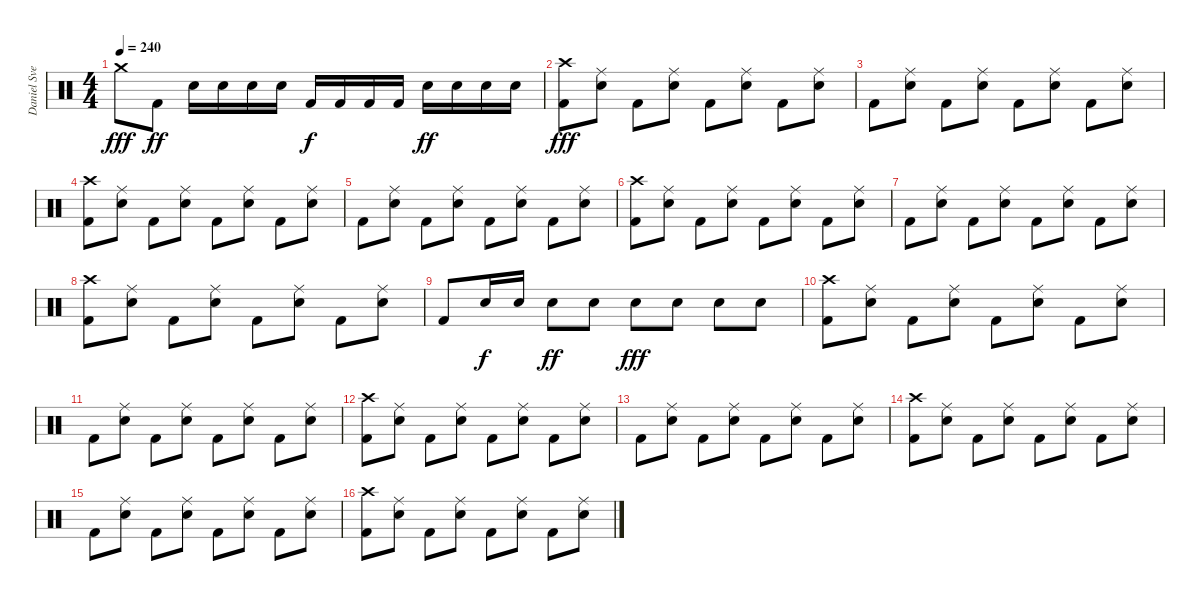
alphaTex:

\track ("Daniel Svensson" "Daniel Sve") {instrument percussion}
\staff {score}
\articulation defaults
\ts (4 4)
\tempo 240
\clef neutral
\ks c "Crash medium (hit)".8{dy fff} "Kick (hit) 2".8{dy ff} "Electric Snare (hit)".16 "Electric Snare (hit)".16 "Electric Snare (hit)".16 "Electric Snare (hit)".16 "Kick (hit) 2".16{dy f} "Kick (hit) 2".16 "Kick (hit) 2".16 "Kick (hit) 2".16 "Electric Snare (hit)".16{dy ff} "Electric Snare (hit)".16 "Electric Snare (hit)".16 "Electric Snare (hit)".16
|
("Crash high (hit)" "Kick (hit) 2").8{dy fff} ("Ride (middle)" "Electric Snare (hit)").8 "Kick (hit) 2".8 ("Ride (middle)" "Electric Snare (hit)").8 "Kick (hit) 2".8 ("Ride (middle)" "Electric Snare (hit)").8 "Kick (hit) 2".8 ("Ride (middle)" "Electric Snare (hit)").8 |
"Kick (hit) 2".8 ("Ride (middle)" "Electric Snare (hit)").8 "Kick (hit) 2".8 ("Ride (middle)" "Electric Snare (hit)").8 "Kick (hit) 2".8 ("Ride (middle)" "Electric Snare (hit)").8 "Kick (hit) 2".8 ("Ride (middle)" "Electric Snare (hit)").8 |
("Crash high (hit)" "Kick (hit) 2").8 ("Ride (middle)" "Electric Snare (hit)").8 "Kick (hit) 2".8 ("Ride (middle)" "Electric Snare (hit)").8 "Kick (hit) 2".8 ("Ride (middle)" "Electric Snare (hit)").8 "Kick (hit) 2".8 ("Ride (middle)" "Electric Snare (hit)").8 |
"Kick (hit) 2".8 ("Ride (middle)" "Electric Snare (hit)").8 "Kick (hit) 2".8 ("Ride (middle)" "Electric Snare (hit)").8 "Kick (hit) 2".8 ("Ride (middle)" "Electric Snare (hit)").8 "Kick (hit) 2".8 ("Ride (middle)" "Electric Snare (hit)").8 |
("Crash high (hit)" "Kick (hit) 2").8 ("Ride (middle)" "Electric Snare (hit)").8 "Kick (hit) 2".8 ("Ride (middle)" "Electric Snare (hit)").8 "Kick (hit) 2".8 ("Ride (middle)" "Electric Snare (hit)").8 "Kick (hit) 2".8 ("Ride (middle)" "Electric Snare (hit)").8 |
"Kick (hit) 2".8 ("Ride (middle)" "Electric Snare (hit)").8 "Kick (hit) 2".8 ("Ride (middle)" "Electric Snare (hit)").8 "Kick (hit) 2".8 ("Ride (middle)" "Electric Snare (hit)").8 "Kick (hit) 2".8 ("Ride (middle)" "Electric Snare (hit)").8 |
("Crash high (hit)" "Kick (hit) 2").8 ("Ride (middle)" "Electric Snare (hit)").8 "Kick (hit) 2".8 ("Ride (middle)" "Electric Snare (hit)").8 "Kick (hit) 2".8 ("Ride (middle)" "Electric Snare (hit)").8 "Kick (hit) 2".8 ("Ride (middle)" "Electric Snare (hit)").8 |
"Kick (hit) 2".8 "Electric Snare (hit)".16{dy f} "Electric Snare (hit)".16 "Electric Snare (hit)".8{dy ff} "Electric Snare (hit)".8 "Electric Snare (hit)".8{dy fff} "Electric Snare (hit)".8 "Electric Snare (hit)".8 "Electric Snare (hit)".8 |
("Crash high (hit)" "Kick (hit) 2").8 ("Ride (middle)" "Electric Snare (hit)").8 "Kick (hit) 2".8 ("Ride (middle)" "Electric Snare (hit)").8 "Kick (hit) 2".8 ("Ride (middle)" "Electric Snare (hit)").8 "Kick (hit) 2".8 ("Ride (middle)" "Electric Snare (hit)").8 |
"Kick (hit) 2".8 ("Ride (middle)" "Electric Snare (hit)").8 "Kick (hit) 2".8 ("Ride (middle)" "Electric Snare (hit)").8 "Kick (hit) 2".8 ("Ride (middle)" "Electric Snare (hit)").8 "Kick (hit) 2".8 ("Ride (middle)" "Electric Snare (hit)").8 |
("Crash high (hit)" "Kick (hit) 2").8 ("Ride (middle)" "Electric Snare (hit)").8 "Kick (hit) 2".8 ("Ride (middle)" "Electric Snare (hit)").8 "Kick (hit) 2".8 ("Ride (middle)" "Electric Snare (hit)").8 "Kick (hit) 2".8 ("Ride (middle)" "Electric Snare (hit)").8 |
"Kick (hit) 2".8 ("Ride (middle)" "Electric Snare (hit)").8 "Kick (hit) 2".8 ("Ride (middle)" "Electric Snare (hit)").8 "Kick (hit) 2".8 ("Ride (middle)" "Electric Snare (hit)").8 "Kick (hit) 2".8 ("Ride (middle)" "Electric Snare (hit)").8 |
("Crash high (hit)" "Kick (hit) 2").8 ("Ride (middle)" "Electric Snare (hit)").8 "Kick (hit) 2".8 ("Ride (middle)" "Electric Snare (hit)").8 "Kick (hit) 2".8 ("Ride (middle)" "Electric Snare (hit)").8 "Kick (hit) 2".8 ("Ride (middle)" "Electric Snare (hit)").8 |
"Kick (hit) 2".8 ("Ride (middle)" "Electric Snare (hit)").8 "Kick (hit) 2".8 ("Ride (middle)" "Electric Snare (hit)").8 "Kick (hit) 2".8 ("Ride (middle)" "Electric Snare (hit)").8 "Kick (hit) 2".8 ("Ride (middle)" "Electric Snare (hit)").8 |
("Crash high (hit)" "Kick (hit) 2").8 ("Ride (middle)" "Electric Snare (hit)").8 "Kick (hit) 2".8 ("Ride (middle)" "Electric Snare (hit)").8 "Kick (hit) 2".8 ("Ride (middle)" "Electric Snare (hit)").8 "Kick (hit) 2".8 ("Ride (middle)" "Electric Snare (hit)").8
